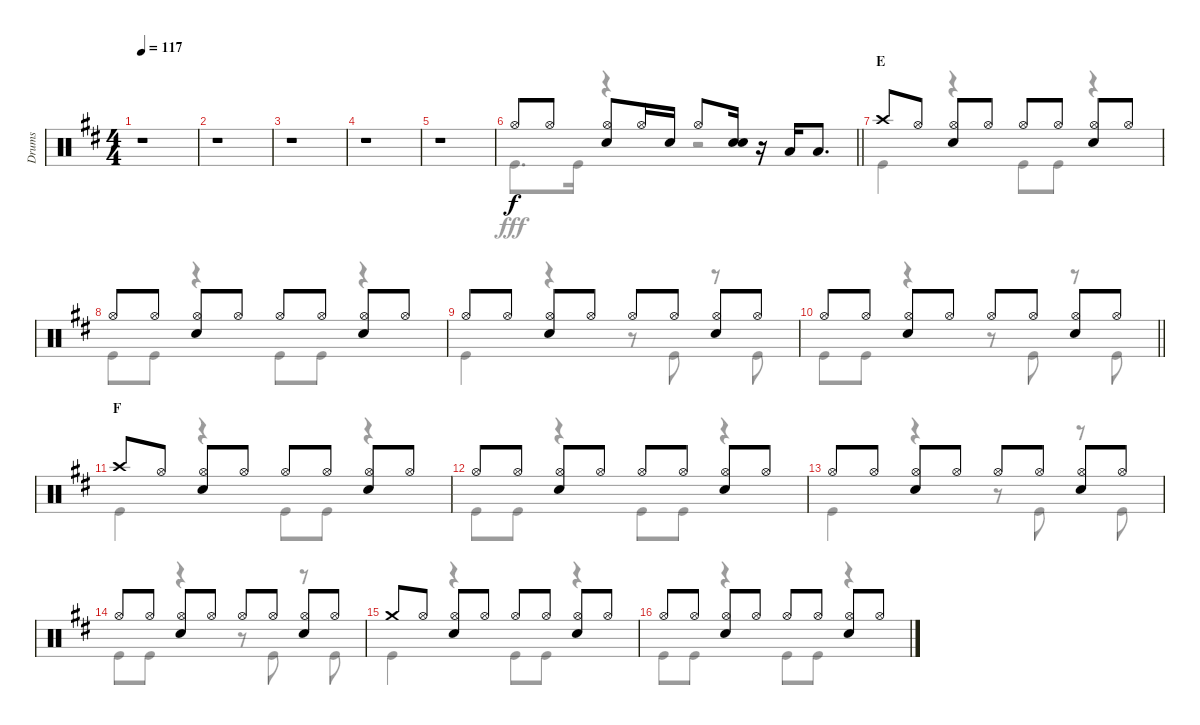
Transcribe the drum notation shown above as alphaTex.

\track ("Drums" "Drums") {instrument percussion}
\staff {score}
\articulation defaults
\voice
\ts (4 4)
\tempo 117
\clef neutral
\ks d
r.1{dy f} |
r.1 |
r.1 |
r.1 |
r.1 |
\barLineRight lightlight "Hi-Hat (open)".8 "Hi-Hat (open)".8
("Hi-Hat (open)" "Snare (hit) 2").8 "Hi-Hat (open)".16 "Snare (hit) 2".16 "Hi-Hat (open)".8 ("Snare (hit) 2" "Snare (hit) 2").16 r.16 "Low Tom (hit)".16 "Low Tom (hit)".8{d} |
\section ("" "E")
"Crash high (hit)".8 "Hi-Hat (open)".8 ("Hi-Hat (open)" "Snare (hit) 2").8 "Hi-Hat (open)".8 "Hi-Hat (open)".8 "Hi-Hat (open)".8 ("Hi-Hat (open)" "Snare (hit) 2").8 "Hi-Hat (open)".8 |
"Hi-Hat (open)".8 "Hi-Hat (open)".8 ("Hi-Hat (open)" "Snare (hit) 2").8 "Hi-Hat (open)".8 "Hi-Hat (open)".8 "Hi-Hat (open)".8 ("Hi-Hat (open)" "Snare (hit) 2").8 "Hi-Hat (open)".8 |
"Hi-Hat (open)".8 "Hi-Hat (open)".8 ("Hi-Hat (open)" "Snare (hit) 2").8 "Hi-Hat (open)".8 "Hi-Hat (open)".8 "Hi-Hat (open)".8 ("Hi-Hat (open)" "Snare (hit) 2").8 "Hi-Hat (open)".8 |
\barLineRight lightlight "Hi-Hat (open)".8 "Hi-Hat (open)".8
("Hi-Hat (open)" "Snare (hit) 2").8 "Hi-Hat (open)".8 "Hi-Hat (open)".8 "Hi-Hat (open)".8 ("Hi-Hat (open)" "Snare (hit) 2").8 "Hi-Hat (open)".8 |
\section ("" "F")
"Crash high (hit)".8 "Hi-Hat (open)".8 ("Hi-Hat (open)" "Snare (hit) 2").8 "Hi-Hat (open)".8 "Hi-Hat (open)".8 "Hi-Hat (open)".8 ("Hi-Hat (open)" "Snare (hit) 2").8 "Hi-Hat (open)".8 |
"Hi-Hat (open)".8 "Hi-Hat (open)".8 ("Hi-Hat (open)" "Snare (hit) 2").8 "Hi-Hat (open)".8 "Hi-Hat (open)".8 "Hi-Hat (open)".8 ("Hi-Hat (open)" "Snare (hit) 2").8 "Hi-Hat (open)".8 |
"Hi-Hat (open)".8 "Hi-Hat (open)".8 ("Hi-Hat (open)" "Snare (hit) 2").8 "Hi-Hat (open)".8 "Hi-Hat (open)".8 "Hi-Hat (open)".8 ("Hi-Hat (open)" "Snare (hit) 2").8 "Hi-Hat (open)".8 |
"Hi-Hat (open)".8 "Hi-Hat (open)".8 ("Hi-Hat (open)" "Snare (hit) 2").8 "Hi-Hat (open)".8 "Hi-Hat (open)".8 "Hi-Hat (open)".8 ("Hi-Hat (open)" "Snare (hit) 2").8 "Hi-Hat (open)".8 |
"Crash medium (hit)".8 "Hi-Hat (open)".8 ("Hi-Hat (open)" "Snare (hit) 2").8 "Hi-Hat (open)".8 "Hi-Hat (open)".8 "Hi-Hat (open)".8 ("Hi-Hat (open)" "Snare (hit) 2").8 "Hi-Hat (open)".8 |
"Hi-Hat (open)".8 "Hi-Hat (open)".8 ("Hi-Hat (open)" "Snare (hit) 2").8 "Hi-Hat (open)".8 "Hi-Hat (open)".8 "Hi-Hat (open)".8 ("Hi-Hat (open)" "Snare (hit) 2").8 "Hi-Hat (open)".8
\voice
\clef neutral
\ottava regular
\simile none
\ks d
r.1{dy fff} |
r.1 |
r.1 |
r.1 |
r.1 |
\barLineRight lightlight "Kick (hit)".8{d} "Kick (hit)".16
r.4 r.2 |
"Kick (hit)".4 r.4 "Kick (hit)".8 "Kick (hit)".8 r.4 |
"Kick (hit)".8 "Kick (hit)".8 r.4 "Kick (hit)".8 "Kick (hit)".8 r.4 |
"Kick (hit)".4 r.4 r.8 "Kick (hit)".8 r.8 "Kick (hit)".8 |
\barLineRight lightlight "Kick (hit)".8 "Kick (hit)".8
r.4 r.8 "Kick (hit)".8 r.8 "Kick (hit)".8 |
"Kick (hit)".4 r.4 "Kick (hit)".8 "Kick (hit)".8 r.4 |
"Kick (hit)".8 "Kick (hit)".8 r.4 "Kick (hit)".8 "Kick (hit)".8 r.4 |
"Kick (hit)".4 r.4 r.8 "Kick (hit)".8 r.8 "Kick (hit)".8 |
"Kick (hit)".8 "Kick (hit)".8 r.4 r.8 "Kick (hit)".8 r.8 "Kick (hit)".8 |
"Kick (hit)".4 r.4 "Kick (hit)".8 "Kick (hit)".8 r.4 |
"Kick (hit)".8 "Kick (hit)".8 r.4 "Kick (hit)".8 "Kick (hit)".8 r.4
